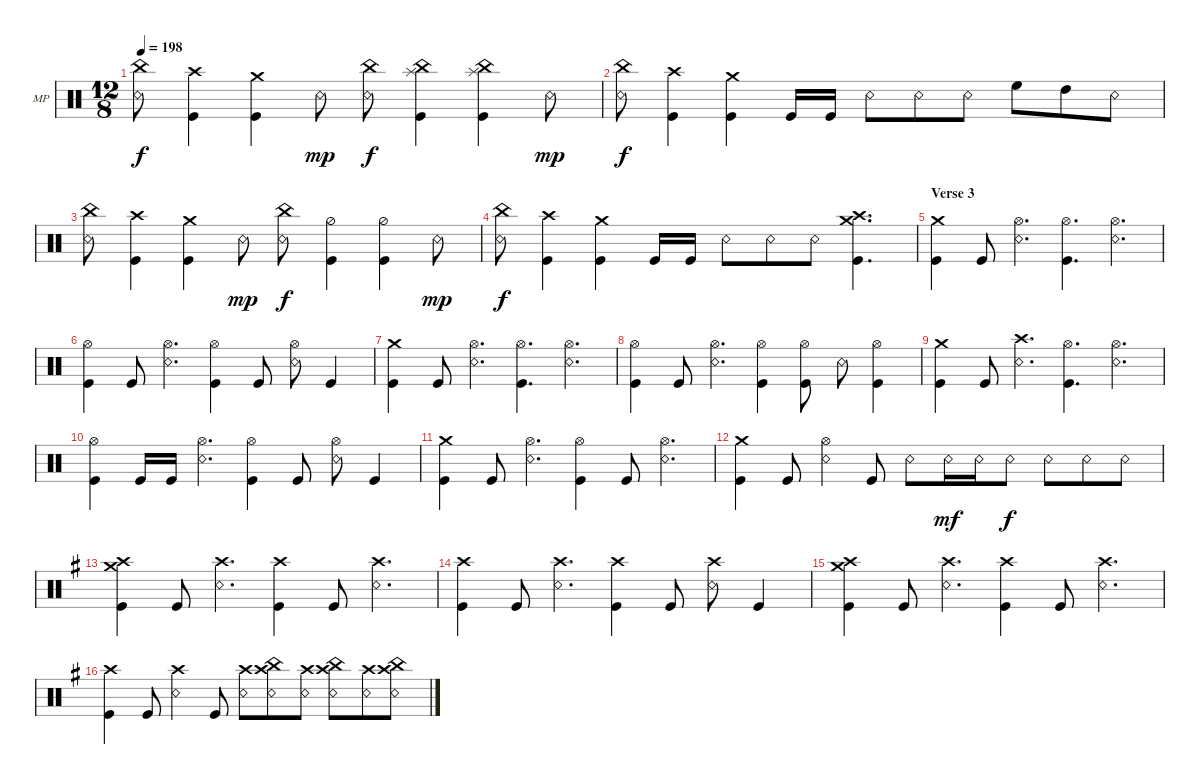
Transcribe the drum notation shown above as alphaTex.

\defaultSystemsLayout 4
\bracketExtendMode groupsimilarinstruments
\firstSystemTrackNameOrientation horizontal
\otherSystemsTrackNameOrientation horizontal
\track ("Mike Portnoy" "MP") {instrument percussion}
\staff {score}
\articulation defaults
\ts (12 8)
\tempo 198
\clef neutral
\ks aminor
("China (hit)" "Snare (rim shot)").8{dy f} ("Crash high (hit)" "Kick (hit)").4 ("Crash medium (hit)" "Kick (hit)").4 "Snare (rim shot)".8{dy mp} ("China (hit)" "Snare (rim shot)").8{dy f} ("Splash (hit)" "China (hit)" "Kick (hit)").4 ("Splash (hit)" "China (hit)" "Kick (hit)").4 "Snare (rim shot)".8{dy mp} |
("China (hit)" "Snare (rim shot)").8{dy f} ("Crash high (hit)" "Kick (hit)").4 ("Crash medium (hit)" "Kick (hit)").4 "Kick (hit)".16 "Kick (hit)".16 "Snare (rim shot)".8 "Snare (rim shot)".8 "Snare (rim shot)".8 "High Floor Tom (hit)".8 "High Tom (hit)".8 "Snare (rim shot)".8 |
("China (hit)" "Snare (rim shot)").8 ("Crash high (hit)" "Kick (hit)").4 ("Crash medium (hit)" "Kick (hit)").4 "Snare (rim shot)".8{dy mp} ("China (hit)" "Snare (rim shot)").8{dy f} ("Kick (hit)" "Hi-Hat (half)").4 ("Kick (hit)" "Hi-Hat (half)").4 "Snare (rim shot)".8{dy mp} |
("China (hit)" "Snare (rim shot)").8{dy f} ("Crash high (hit)" "Kick (hit)").4 ("Crash medium (hit)" "Kick (hit)").4 "Kick (hit)".16 "Kick (hit)".16 "Snare (rim shot)".8 "Snare (rim shot)".8 "Snare (rim shot)".8 ("Crash medium (hit)" "Crash high (hit)" "Kick (hit)").4{d} |
\section ("" "Verse 3")
("Crash medium (hit)" "Kick (hit)").4 "Kick (hit)".8 ("Hi-Hat (open)" "Snare (rim shot)").4{d} ("Hi-Hat (open)" "Kick (hit)").4{d} ("Hi-Hat (open)" "Snare (rim shot)").4{d} |
("Hi-Hat (open)" "Kick (hit)").4 "Kick (hit)".8 ("Hi-Hat (open)" "Snare (rim shot)").4{d} ("Hi-Hat (open)" "Kick (hit)").4 "Kick (hit)".8 ("Hi-Hat (open)" "Snare (rim shot)").8 "Kick (hit)".4 |
("Crash medium (hit)" "Kick (hit)").4 "Kick (hit)".8 ("Hi-Hat (open)" "Snare (rim shot)").4{d} ("Hi-Hat (open)" "Kick (hit)").4{d} ("Hi-Hat (open)" "Snare (rim shot)").4{d} |
("Hi-Hat (open)" "Kick (hit)").4 "Kick (hit)".8 ("Hi-Hat (open)" "Snare (rim shot)").4{d} ("Hi-Hat (open)" "Kick (hit)").4 ("Hi-Hat (open)" "Kick (hit)").8 "Snare (rim shot)".8 ("Hi-Hat (open)" "Kick (hit)").4 |
("Crash medium (hit)" "Kick (hit)").4 "Kick (hit)".8 ("Crash high (hit)" "Snare (rim shot)").4{d} ("Hi-Hat (open)" "Kick (hit)").4{d} ("Hi-Hat (open)" "Snare (rim shot)").4{d} |
("Hi-Hat (open)" "Kick (hit)").4 "Kick (hit)".16 "Kick (hit)".16 ("Hi-Hat (open)" "Snare (rim shot)").4{d} ("Hi-Hat (open)" "Kick (hit)").4 "Kick (hit)".8 ("Hi-Hat (open)" "Snare (rim shot)").8 "Kick (hit)".4 |
("Crash medium (hit)" "Kick (hit)").4 "Kick (hit)".8 ("Hi-Hat (open)" "Snare (rim shot)").4{d} ("Hi-Hat (open)" "Kick (hit)").4 "Kick (hit)".8 ("Hi-Hat (open)" "Snare (rim shot)").4{d} |
("Crash medium (hit)" "Kick (hit)").4 "Kick (hit)".8 ("Hi-Hat (open)" "Snare (rim shot)").4 "Kick (hit)".8 "Snare (rim shot)".8 "Snare (rim shot)".16{dy mf} "Snare (rim shot)".16 "Snare (rim shot)".8{dy f} "Snare (rim shot)".8 "Snare (rim shot)".8 "Snare (rim shot)".8 |
\ks g
("Crash medium (hit)" "Crash high (hit)" "Kick (hit)").4 "Kick (hit)".8 ("Crash high (hit)" "Snare (rim shot)").4{d} ("Crash high (hit)" "Kick (hit)").4 "Kick (hit)".8 ("Crash high (hit)" "Snare (rim shot)").4{d} |
("Crash high (hit)" "Kick (hit)").4 "Kick (hit)".8 ("Crash high (hit)" "Snare (rim shot)").4{d} ("Crash high (hit)" "Kick (hit)").4 "Kick (hit)".8 ("Crash high (hit)" "Snare (rim shot)").8 "Kick (hit)".4 |
("Crash medium (hit)" "Crash high (hit)" "Kick (hit)").4 "Kick (hit)".8 ("Crash high (hit)" "Snare (rim shot)").4{d} ("Crash high (hit)" "Kick (hit)").4 "Kick (hit)".8 ("Crash high (hit)" "Snare (rim shot)").4{d} |
("Crash high (hit)" "Kick (hit)").4 "Kick (hit)".8 ("Crash high (hit)" "Snare (rim shot)").4 "Kick (hit)".8 ("Crash high (hit)" "Snare (rim shot)").8 ("Crash high (hit)" "Snare (rim shot)" "China (hit)").8 ("Crash high (hit)" "Snare (rim shot)").8 ("Crash high (hit)" "Snare (rim shot)" "China (hit)").8 ("Crash high (hit)" "Snare (rim shot)").8 ("Crash high (hit)" "Snare (rim shot)" "China (hit)").8
